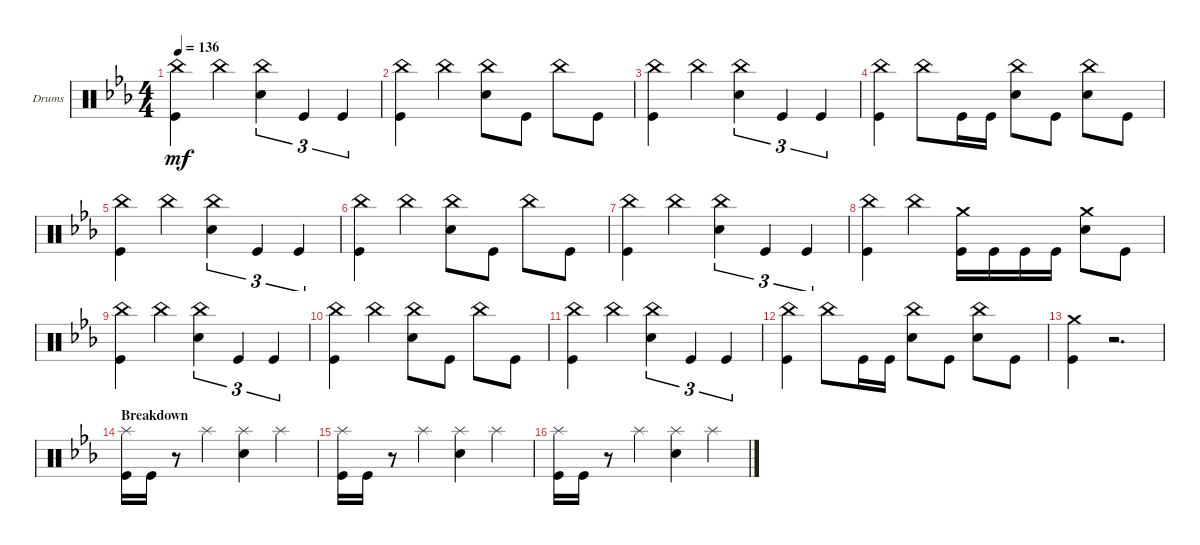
\defaultSystemsLayout 4
\bracketExtendMode groupsimilarinstruments
\firstSystemTrackNameOrientation horizontal
\otherSystemsTrackNameOrientation horizontal
\track ("Drumkit" "Drums") {instrument percussion}
\staff {score}
\articulation defaults
\ts (4 4)
\tempo 136
\clef neutral
\scale
0.333333
\ks cminor
("Kick (hit)" "China (hit)").4{dy mf} "China (hit)".4 ("Snare (hit) 2" "China (hit)").4{tu (3 2)} "Kick (hit)".4{tu (3 2)} "Kick (hit)".4{tu (3 2)} |
\scale
0.333333 ("Kick (hit)" "China (hit)").4 "China (hit)".4 ("Snare (hit) 2" "China (hit)").8 "Kick (hit)".8 "China (hit)".8 "Kick (hit)".8 |
\scale
0.333333 ("Kick (hit)" "China (hit)").4 "China (hit)".4 ("Snare (hit) 2" "China (hit)").4{tu (3 2)} "Kick (hit)".4{tu (3 2)} "Kick (hit)".4{tu (3 2)} |
\scale
0.333333 ("Kick (hit)" "China (hit)").4 "China (hit)".8 "Kick (hit)".16 "Kick (hit)".16 ("Snare (hit) 2" "China (hit)").8 "Kick (hit)".8 ("Snare (hit) 2" "China (hit)").8 "Kick (hit)".8 |
\scale
0.333333 ("Kick (hit)" "China (hit)").4 "China (hit)".4 ("Snare (hit) 2" "China (hit)").4{tu (3 2)} "Kick (hit)".4{tu (3 2)} "Kick (hit)".4{tu (3 2)} |
\scale
0.333333 ("Kick (hit)" "China (hit)").4 "China (hit)".4 ("Snare (hit) 2" "China (hit)").8 "Kick (hit)".8 "China (hit)".8 "Kick (hit)".8 |
\scale
0.333333 ("Kick (hit)" "China (hit)").4 "China (hit)".4 ("Snare (hit) 2" "China (hit)").4{tu (3 2)} "Kick (hit)".4{tu (3 2)} "Kick (hit)".4{tu (3 2)} |
\scale
0.333333 ("Kick (hit)" "China (hit)").4 "China (hit)".4 ("Kick (hit)" "Crash medium (hit)").16 "Kick (hit)".16 "Kick (hit)".16 "Kick (hit)".16 ("Snare (hit) 2" "Crash medium (hit)").8 "Kick (hit)".8 |
\scale
0.333333 ("Kick (hit)" "China (hit)").4 "China (hit)".4 ("Snare (hit) 2" "China (hit)").4{tu (3 2)} "Kick (hit)".4{tu (3 2)} "Kick (hit)".4{tu (3 2)} |
\scale
0.333333 ("Kick (hit)" "China (hit)").4 "China (hit)".4 ("Snare (hit) 2" "China (hit)").8 "Kick (hit)".8 "China (hit)".8 "Kick (hit)".8 |
\scale
0.333333 ("Kick (hit)" "China (hit)").4 "China (hit)".4 ("Snare (hit) 2" "China (hit)").4{tu (3 2)} "Kick (hit)".4{tu (3 2)} "Kick (hit)".4{tu (3 2)} |
\scale
0.333333 ("Kick (hit)" "China (hit)").4 "China (hit)".8 "Kick (hit)".16 "Kick (hit)".16 ("Snare (hit) 2" "China (hit)").8 "Kick (hit)".8 ("Snare (hit) 2" "China (hit)").8 "Kick (hit)".8 |
\scale
0.333333 ("Kick (hit)" "Crash medium (hit)").4 r.2{d} |
\section ("" "Breakdown")
\scale
0.333333 ("Kick (hit)" "Splash (hit)").16 "Kick (hit)".16 r.8 "Splash (hit)".4 ("Snare (hit) 2" "Splash (hit)").4 "Splash (hit)".4 |
\scale
0.333333 ("Kick (hit)" "Splash (hit)").16 "Kick (hit)".16 r.8 "Splash (hit)".4 ("Snare (hit) 2" "Splash (hit)").4 "Splash (hit)".4 |
\scale
0.333333 ("Kick (hit)" "Splash (hit)").16 "Kick (hit)".16 r.8 "Splash (hit)".4 ("Snare (hit) 2" "Splash (hit)").4 "Splash (hit)".4
